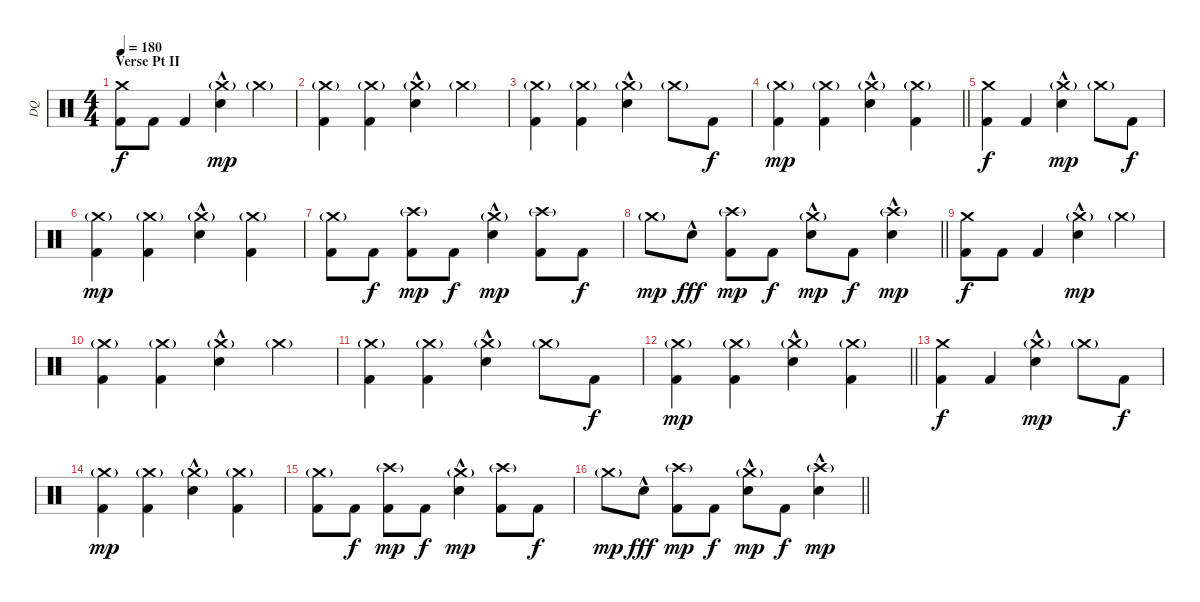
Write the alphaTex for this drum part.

\track ("DQ" "DQ") {instrument percussion}
\staff {score}
\articulation defaults
\ts (4 4)
\section ("" "Verse Pt II")
\tempo 180
\clef neutral
\ks c
("Kick (hit) 2" "Crash medium (hit)").8{dy f} "Kick (hit) 2".8 "Kick (hit) 2".4 ("Snare (hit) 2"{hac} "Crash medium (hit)"{g}).4{dy mp} "Crash medium (hit)"{g}.4 |
("Kick (hit) 2" "Crash medium (hit)"{g}).4 ("Kick (hit) 2" "Crash medium (hit)"{g}).4 ("Snare (hit) 2"{hac} "Crash medium (hit)"{g}).4 "Crash medium (hit)"{g}.4 |
("Kick (hit) 2" "Crash medium (hit)"{g}).4 ("Kick (hit) 2" "Crash medium (hit)"{g}).4 ("Snare (hit) 2"{hac} "Crash medium (hit)"{g}).4 "Crash medium (hit)"{g}.8 "Kick (hit) 2".8{dy f} |
\barLineRight lightlight
("Kick (hit) 2" "Crash medium (hit)"{g}).4{dy mp} ("Kick (hit) 2" "Crash medium (hit)"{g}).4 ("Snare (hit) 2"{hac} "Crash medium (hit)"{g}).4 ("Kick (hit) 2" "Crash medium (hit)"{g}).4 |
\section ("" "")
("Kick (hit) 2" "Crash medium (hit)").4{dy f} "Kick (hit) 2".4 ("Snare (hit) 2"{hac} "Crash medium (hit)"{g}).4{dy mp} "Crash medium (hit)"{g}.8 "Kick (hit) 2".8{dy f} |
("Kick (hit) 2" "Crash medium (hit)"{g}).4{dy mp} ("Kick (hit) 2" "Crash medium (hit)"{g}).4 ("Snare (hit) 2"{hac} "Crash medium (hit)"{g}).4 ("Kick (hit) 2" "Crash medium (hit)"{g}).4 |
("Kick (hit) 2" "Crash medium (hit)"{g}).8 "Kick (hit) 2".8{dy f} ("Kick (hit) 2" "Crash high (hit)"{g}).8{dy mp} "Kick (hit) 2".8{dy f} ("Snare (hit) 2"{hac} "Crash medium (hit)"{g}).4{dy mp} ("Kick (hit) 2" "Crash high (hit)"{g}).8 "Kick (hit) 2".8{dy f} |
\barLineRight lightlight "Crash medium (hit)"{g}.8{dy mp} "Snare (hit) 2"{hac}.8{dy fff}
("Kick (hit) 2" "Crash high (hit)"{g}).8{dy mp} "Kick (hit) 2".8{dy f} ("Snare (hit) 2"{hac} "Crash medium (hit)"{g}).8{dy mp} "Kick (hit) 2".8{dy f} ("Snare (hit) 2"{hac} "Crash high (hit)"{g}).4{dy mp} |
\section ("" "")
("Kick (hit) 2" "Crash medium (hit)").8{dy f} "Kick (hit) 2".8 "Kick (hit) 2".4 ("Snare (hit) 2"{hac} "Crash medium (hit)"{g}).4{dy mp} "Crash medium (hit)"{g}.4 |
("Kick (hit) 2" "Crash medium (hit)"{g}).4 ("Kick (hit) 2" "Crash medium (hit)"{g}).4 ("Snare (hit) 2"{hac} "Crash medium (hit)"{g}).4 "Crash medium (hit)"{g}.4 |
("Kick (hit) 2" "Crash medium (hit)"{g}).4 ("Kick (hit) 2" "Crash medium (hit)"{g}).4 ("Snare (hit) 2"{hac} "Crash medium (hit)"{g}).4 "Crash medium (hit)"{g}.8 "Kick (hit) 2".8{dy f} |
\barLineRight lightlight
("Kick (hit) 2" "Crash medium (hit)"{g}).4{dy mp} ("Kick (hit) 2" "Crash medium (hit)"{g}).4 ("Snare (hit) 2"{hac} "Crash medium (hit)"{g}).4 ("Kick (hit) 2" "Crash medium (hit)"{g}).4 |
\section ("" "")
("Kick (hit) 2" "Crash medium (hit)").4{dy f} "Kick (hit) 2".4 ("Snare (hit) 2"{hac} "Crash medium (hit)"{g}).4{dy mp} "Crash medium (hit)"{g}.8 "Kick (hit) 2".8{dy f} |
("Kick (hit) 2" "Crash medium (hit)"{g}).4{dy mp} ("Kick (hit) 2" "Crash medium (hit)"{g}).4 ("Snare (hit) 2"{hac} "Crash medium (hit)"{g}).4 ("Kick (hit) 2" "Crash medium (hit)"{g}).4 |
("Kick (hit) 2" "Crash medium (hit)"{g}).8 "Kick (hit) 2".8{dy f} ("Kick (hit) 2" "Crash high (hit)"{g}).8{dy mp} "Kick (hit) 2".8{dy f} ("Snare (hit) 2"{hac} "Crash medium (hit)"{g}).4{dy mp} ("Kick (hit) 2" "Crash high (hit)"{g}).8 "Kick (hit) 2".8{dy f} |
\barLineRight lightlight "Crash medium (hit)"{g}.8{dy mp} "Snare (hit) 2"{hac}.8{dy fff}
("Kick (hit) 2" "Crash high (hit)"{g}).8{dy mp} "Kick (hit) 2".8{dy f} ("Snare (hit) 2"{hac} "Crash medium (hit)"{g}).8{dy mp} "Kick (hit) 2".8{dy f} ("Snare (hit) 2"{hac} "Crash high (hit)"{g}).4{dy mp}
